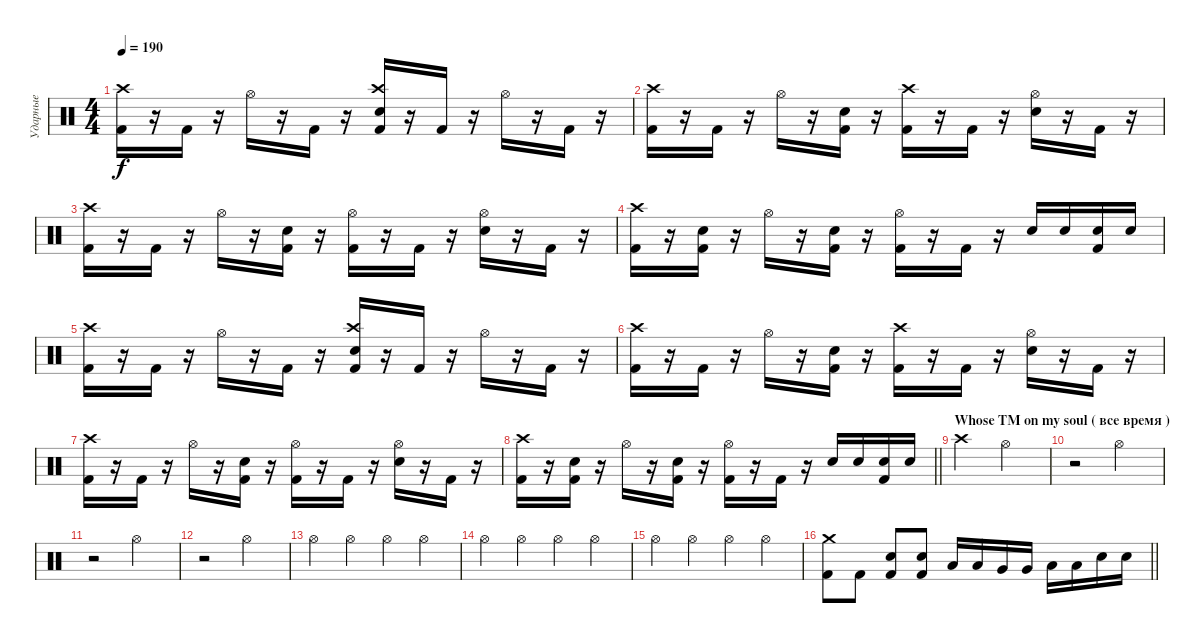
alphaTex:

\track ("Ударные" "Ударные") {instrument percussion}
\staff {score}
\articulation defaults
\ts (4 4)
\tempo 190
\clef neutral
\ks c
("Kick (hit) 2" "Crash high (hit)").16{dy f} r.16 "Kick (hit) 2".16 r.16 "Hi-Hat (open)".16 r.16 "Kick (hit) 2".16 r.16 ("Kick (hit) 2" "Electric Snare (hit)" "Crash high (hit)").16 r.16 "Kick (hit) 2".16 r.16 "Hi-Hat (open)".16 r.16 "Kick (hit) 2".16 r.16 |
("Kick (hit) 2" "Crash high (hit)").16 r.16 "Kick (hit) 2".16 r.16 "Hi-Hat (open)".16 r.16 ("Kick (hit) 2" "Electric Snare (hit)").16 r.16 ("Kick (hit) 2" "Crash high (hit)").16 r.16 "Kick (hit) 2".16 r.16 ("Electric Snare (hit)" "Hi-Hat (open)").16 r.16 "Kick (hit) 2".16 r.16 |
("Kick (hit) 2" "Crash high (hit)").16 r.16 "Kick (hit) 2".16 r.16 "Hi-Hat (open)".16 r.16 ("Kick (hit) 2" "Electric Snare (hit)").16 r.16 ("Kick (hit) 2" "Hi-Hat (open)").16 r.16 "Kick (hit) 2".16 r.16 ("Electric Snare (hit)" "Hi-Hat (open)").16 r.16 "Kick (hit) 2".16 r.16 |
("Kick (hit) 2" "Crash high (hit)").16 r.16 ("Kick (hit) 2" "Electric Snare (hit)").16 r.16 "Hi-Hat (open)".16 r.16 ("Kick (hit) 2" "Electric Snare (hit)").16 r.16 ("Kick (hit) 2" "Hi-Hat (open)").16 r.16 "Kick (hit) 2".16 r.16 "Electric Snare (hit)".16 "Electric Snare (hit)".16 ("Kick (hit) 2" "Electric Snare (hit)").16 "Electric Snare (hit)".16 |
("Kick (hit) 2" "Crash high (hit)").16 r.16 "Kick (hit) 2".16 r.16 "Hi-Hat (open)".16 r.16 "Kick (hit) 2".16 r.16 ("Kick (hit) 2" "Electric Snare (hit)" "Crash high (hit)").16 r.16 "Kick (hit) 2".16 r.16 "Hi-Hat (open)".16 r.16 "Kick (hit) 2".16 r.16 |
("Kick (hit) 2" "Crash high (hit)").16 r.16 "Kick (hit) 2".16 r.16 "Hi-Hat (open)".16 r.16 ("Kick (hit) 2" "Electric Snare (hit)").16 r.16 ("Kick (hit) 2" "Crash high (hit)").16 r.16 "Kick (hit) 2".16 r.16 ("Electric Snare (hit)" "Hi-Hat (open)").16 r.16 "Kick (hit) 2".16 r.16 |
("Kick (hit) 2" "Crash high (hit)").16 r.16 "Kick (hit) 2".16 r.16 "Hi-Hat (open)".16 r.16 ("Kick (hit) 2" "Electric Snare (hit)").16 r.16 ("Kick (hit) 2" "Hi-Hat (open)").16 r.16 "Kick (hit) 2".16 r.16 ("Electric Snare (hit)" "Hi-Hat (open)").16 r.16 "Kick (hit) 2".16 r.16 |
\barLineRight lightlight
("Kick (hit) 2" "Crash high (hit)").16 r.16 ("Kick (hit) 2" "Electric Snare (hit)").16 r.16 "Hi-Hat (open)".16 r.16 ("Kick (hit) 2" "Electric Snare (hit)").16 r.16 ("Kick (hit) 2" "Hi-Hat (open)").16 r.16 "Kick (hit) 2".16 r.16 "Electric Snare (hit)".16 "Electric Snare (hit)".16 ("Kick (hit) 2" "Electric Snare (hit)").16 "Electric Snare (hit)".16 |
\section ("" "Whose TM on my soul ( все время )")
"Crash high (hit)".2 "Hi-Hat (open)".2 |
r.2 "Hi-Hat (open)".2 |
r.2 "Hi-Hat (open)".2 |
r.2 "Hi-Hat (open)".2 |
"Hi-Hat (open)".4 "Hi-Hat (open)".4 "Hi-Hat (open)".4 "Hi-Hat (open)".4 |
"Hi-Hat (open)".4 "Hi-Hat (open)".4 "Hi-Hat (open)".4 "Hi-Hat (open)".4 |
"Hi-Hat (open)".4 "Hi-Hat (open)".4 "Hi-Hat (open)".4 "Hi-Hat (open)".4 |
\barLineRight lightlight
("Crash medium (hit)" "Kick (hit) 2").8 "Kick (hit) 2".8 ("Electric Snare (hit)" "Kick (hit) 2").8 ("Electric Snare (hit)" "Kick (hit) 2").8 "Low Tom (hit)".16 "Low Tom (hit)".16 "Very Low Tom (hit)".16 "Very Low Tom (hit)".16 "Low Floor Tom (hit)".16 "Low Floor Tom (hit)".16 "Electric Snare (hit)".16 "Electric Snare (hit)".16
